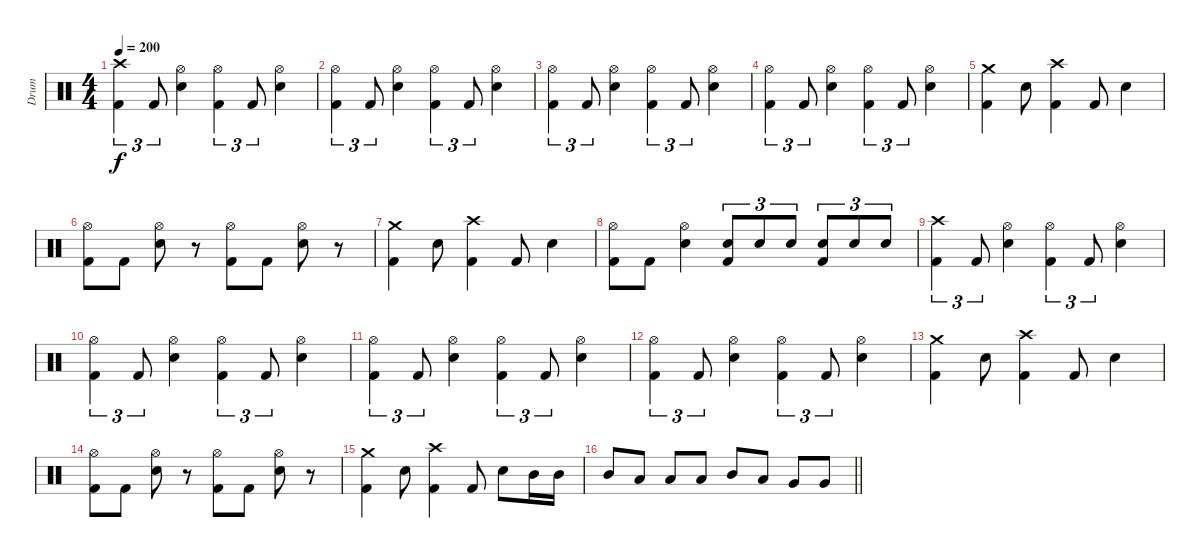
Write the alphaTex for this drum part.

\track ("Drum" "Drum") {instrument percussion}
\staff {score}
\articulation defaults
\ts (4 4)
\tempo 200
\clef neutral
\ks c
("Crash high (hit)" "Kick (hit) 2").4{tu (3 2) dy f} "Kick (hit) 2".8{tu (3 2)} ("Hi-Hat (open)" "Electric Snare (hit)").4 ("Hi-Hat (open)" "Kick (hit) 2").4{tu (3 2)} "Kick (hit) 2".8{tu (3 2)} ("Hi-Hat (open)" "Electric Snare (hit)").4 |
("Hi-Hat (open)" "Kick (hit) 2").4{tu (3 2)} "Kick (hit) 2".8{tu (3 2)} ("Hi-Hat (open)" "Electric Snare (hit)").4 ("Hi-Hat (open)" "Kick (hit) 2").4{tu (3 2)} "Kick (hit) 2".8{tu (3 2)} ("Hi-Hat (open)" "Electric Snare (hit)").4 |
("Hi-Hat (open)" "Kick (hit) 2").4{tu (3 2)} "Kick (hit) 2".8{tu (3 2)} ("Hi-Hat (open)" "Electric Snare (hit)").4 ("Hi-Hat (open)" "Kick (hit) 2").4{tu (3 2)} "Kick (hit) 2".8{tu (3 2)} ("Hi-Hat (open)" "Electric Snare (hit)").4 |
("Hi-Hat (open)" "Kick (hit) 2").4{tu (3 2)} "Kick (hit) 2".8{tu (3 2)} ("Hi-Hat (open)" "Electric Snare (hit)").4 ("Hi-Hat (open)" "Kick (hit) 2").4{tu (3 2)} "Kick (hit) 2".8{tu (3 2)} ("Hi-Hat (open)" "Electric Snare (hit)").4 |
("Crash medium (hit)" "Kick (hit) 2").4 "Electric Snare (hit)".8 ("Crash high (hit)" "Kick (hit) 2").4 "Kick (hit) 2".8 "Electric Snare (hit)".4 |
("Hi-Hat (open)" "Kick (hit) 2").8 "Kick (hit) 2".8 ("Hi-Hat (open)" "Electric Snare (hit)").8 r.8 ("Hi-Hat (open)" "Kick (hit) 2").8 "Kick (hit) 2".8 ("Hi-Hat (open)" "Electric Snare (hit)").8 r.8 |
("Crash medium (hit)" "Kick (hit) 2").4 "Electric Snare (hit)".8 ("Crash high (hit)" "Kick (hit) 2").4 "Kick (hit) 2".8 "Electric Snare (hit)".4 |
("Hi-Hat (open)" "Kick (hit) 2").8 "Kick (hit) 2".8 ("Hi-Hat (open)" "Electric Snare (hit)").4 ("Electric Snare (hit)" "Kick (hit) 2").8{tu (3 2)} "Electric Snare (hit)".8{tu (3 2)} "Electric Snare (hit)".8{tu (3 2)} ("Electric Snare (hit)" "Kick (hit) 2").8{tu (3 2)} "Electric Snare (hit)".8{tu (3 2)} "Electric Snare (hit)".8{tu (3 2)} |
("Crash high (hit)" "Kick (hit) 2").4{tu (3 2)} "Kick (hit) 2".8{tu (3 2)} ("Hi-Hat (open)" "Electric Snare (hit)").4 ("Hi-Hat (open)" "Kick (hit) 2").4{tu (3 2)} "Kick (hit) 2".8{tu (3 2)} ("Hi-Hat (open)" "Electric Snare (hit)").4 |
("Hi-Hat (open)" "Kick (hit) 2").4{tu (3 2)} "Kick (hit) 2".8{tu (3 2)} ("Hi-Hat (open)" "Electric Snare (hit)").4 ("Hi-Hat (open)" "Kick (hit) 2").4{tu (3 2)} "Kick (hit) 2".8{tu (3 2)} ("Hi-Hat (open)" "Electric Snare (hit)").4 |
("Hi-Hat (open)" "Kick (hit) 2").4{tu (3 2)} "Kick (hit) 2".8{tu (3 2)} ("Hi-Hat (open)" "Electric Snare (hit)").4 ("Hi-Hat (open)" "Kick (hit) 2").4{tu (3 2)} "Kick (hit) 2".8{tu (3 2)} ("Hi-Hat (open)" "Electric Snare (hit)").4 |
("Hi-Hat (open)" "Kick (hit) 2").4{tu (3 2)} "Kick (hit) 2".8{tu (3 2)} ("Hi-Hat (open)" "Electric Snare (hit)").4 ("Hi-Hat (open)" "Kick (hit) 2").4{tu (3 2)} "Kick (hit) 2".8{tu (3 2)} ("Hi-Hat (open)" "Electric Snare (hit)").4 |
("Crash medium (hit)" "Kick (hit) 2").4 "Electric Snare (hit)".8 ("Crash high (hit)" "Kick (hit) 2").4 "Kick (hit) 2".8 "Electric Snare (hit)".4 |
("Hi-Hat (open)" "Kick (hit) 2").8 "Kick (hit) 2".8 ("Hi-Hat (open)" "Electric Snare (hit)").8 r.8 ("Hi-Hat (open)" "Kick (hit) 2").8 "Kick (hit) 2".8 ("Hi-Hat (open)" "Electric Snare (hit)").8 r.8 |
("Crash medium (hit)" "Kick (hit) 2").4 "Electric Snare (hit)".8 ("Crash high (hit)" "Kick (hit) 2").4 "Kick (hit) 2".8 "Electric Snare (hit)".8 "Mid Tom (hit)".16 "Mid Tom (hit)".16 |
\barLineRight lightlight "Mid Tom (hit)".8 "Low Tom (hit)".8 "Low Tom (hit)".8 "Low Tom (hit)".8 "Mid Tom (hit)".8 "Low Tom (hit)".8 "Very Low Tom (hit)".8 "Very Low Tom (hit)".8
